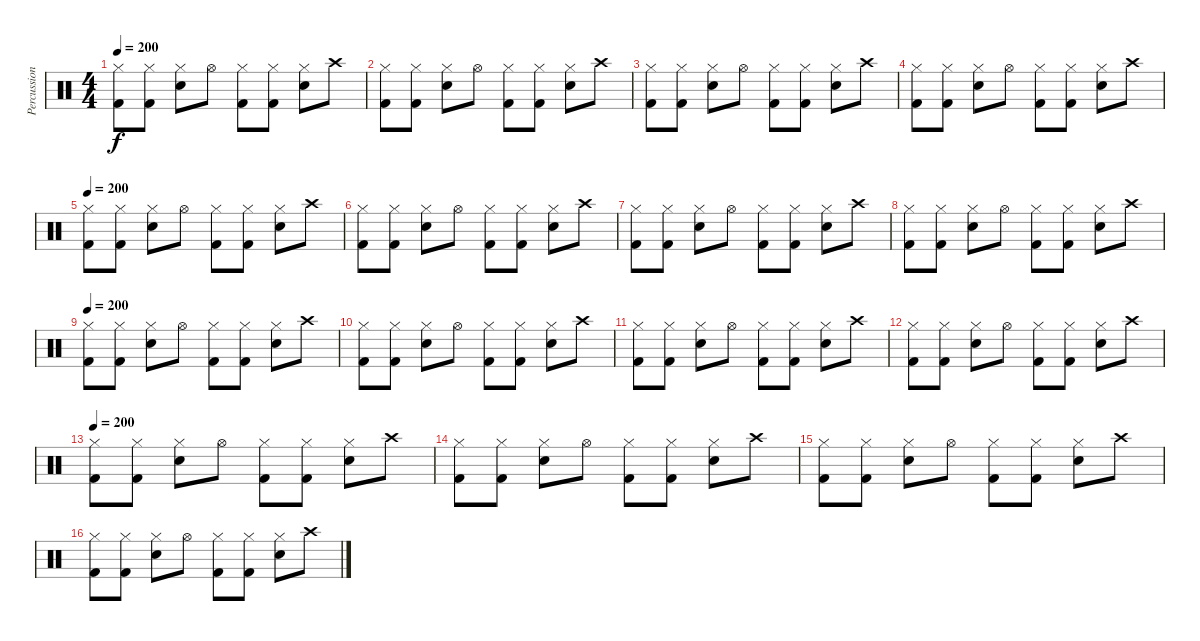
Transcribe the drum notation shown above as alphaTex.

\track ("Percussion" "Percussion") {instrument percussion}
\staff {score}
\articulation defaults
\ts (4 4)
\tempo 200
\clef neutral
\ks c
("Hi-Hat (closed)" "Kick (hit) 2").8{dy f} ("Hi-Hat (closed)" "Kick (hit) 2").8 ("Hi-Hat (closed)" "Snare (hit) 2").8 "Hi-Hat (open)".8 ("Hi-Hat (closed)" "Kick (hit) 2").8 ("Hi-Hat (closed)" "Kick (hit) 2").8 ("Hi-Hat (closed)" "Snare (hit) 2").8 "Crash high (hit)".8 |
("Hi-Hat (closed)" "Kick (hit) 2").8 ("Hi-Hat (closed)" "Kick (hit) 2").8 ("Hi-Hat (closed)" "Snare (hit) 2").8 "Hi-Hat (open)".8 ("Hi-Hat (closed)" "Kick (hit) 2").8 ("Hi-Hat (closed)" "Kick (hit) 2").8 ("Hi-Hat (closed)" "Snare (hit) 2").8 "Crash high (hit)".8 |
("Hi-Hat (closed)" "Kick (hit) 2").8 ("Hi-Hat (closed)" "Kick (hit) 2").8 ("Hi-Hat (closed)" "Snare (hit) 2").8 "Hi-Hat (open)".8 ("Hi-Hat (closed)" "Kick (hit) 2").8 ("Hi-Hat (closed)" "Kick (hit) 2").8 ("Hi-Hat (closed)" "Snare (hit) 2").8 "Crash high (hit)".8 |
("Hi-Hat (closed)" "Kick (hit) 2").8 ("Hi-Hat (closed)" "Kick (hit) 2").8 ("Hi-Hat (closed)" "Snare (hit) 2").8 "Hi-Hat (open)".8 ("Hi-Hat (closed)" "Kick (hit) 2").8 ("Hi-Hat (closed)" "Kick (hit) 2").8 ("Hi-Hat (closed)" "Snare (hit) 2").8 "Crash high (hit)".8 |
\tempo 200
("Hi-Hat (closed)" "Kick (hit) 2").8 ("Hi-Hat (closed)" "Kick (hit) 2").8 ("Hi-Hat (closed)" "Snare (hit) 2").8 "Hi-Hat (open)".8 ("Hi-Hat (closed)" "Kick (hit) 2").8 ("Hi-Hat (closed)" "Kick (hit) 2").8 ("Hi-Hat (closed)" "Snare (hit) 2").8 "Crash high (hit)".8 |
("Hi-Hat (closed)" "Kick (hit) 2").8 ("Hi-Hat (closed)" "Kick (hit) 2").8 ("Hi-Hat (closed)" "Snare (hit) 2").8 "Hi-Hat (open)".8 ("Hi-Hat (closed)" "Kick (hit) 2").8 ("Hi-Hat (closed)" "Kick (hit) 2").8 ("Hi-Hat (closed)" "Snare (hit) 2").8 "Crash high (hit)".8 |
("Hi-Hat (closed)" "Kick (hit) 2").8 ("Hi-Hat (closed)" "Kick (hit) 2").8 ("Hi-Hat (closed)" "Snare (hit) 2").8 "Hi-Hat (open)".8 ("Hi-Hat (closed)" "Kick (hit) 2").8 ("Hi-Hat (closed)" "Kick (hit) 2").8 ("Hi-Hat (closed)" "Snare (hit) 2").8 "Crash high (hit)".8 |
("Hi-Hat (closed)" "Kick (hit) 2").8 ("Hi-Hat (closed)" "Kick (hit) 2").8 ("Hi-Hat (closed)" "Snare (hit) 2").8 "Hi-Hat (open)".8 ("Hi-Hat (closed)" "Kick (hit) 2").8 ("Hi-Hat (closed)" "Kick (hit) 2").8 ("Hi-Hat (closed)" "Snare (hit) 2").8 "Crash high (hit)".8 |
\tempo 200
("Hi-Hat (closed)" "Kick (hit) 2").8 ("Hi-Hat (closed)" "Kick (hit) 2").8 ("Hi-Hat (closed)" "Snare (hit) 2").8 "Hi-Hat (open)".8 ("Hi-Hat (closed)" "Kick (hit) 2").8 ("Hi-Hat (closed)" "Kick (hit) 2").8 ("Hi-Hat (closed)" "Snare (hit) 2").8 "Crash high (hit)".8 |
("Hi-Hat (closed)" "Kick (hit) 2").8 ("Hi-Hat (closed)" "Kick (hit) 2").8 ("Hi-Hat (closed)" "Snare (hit) 2").8 "Hi-Hat (open)".8 ("Hi-Hat (closed)" "Kick (hit) 2").8 ("Hi-Hat (closed)" "Kick (hit) 2").8 ("Hi-Hat (closed)" "Snare (hit) 2").8 "Crash high (hit)".8 |
("Hi-Hat (closed)" "Kick (hit) 2").8 ("Hi-Hat (closed)" "Kick (hit) 2").8 ("Hi-Hat (closed)" "Snare (hit) 2").8 "Hi-Hat (open)".8 ("Hi-Hat (closed)" "Kick (hit) 2").8 ("Hi-Hat (closed)" "Kick (hit) 2").8 ("Hi-Hat (closed)" "Snare (hit) 2").8 "Crash high (hit)".8 |
("Hi-Hat (closed)" "Kick (hit) 2").8 ("Hi-Hat (closed)" "Kick (hit) 2").8 ("Hi-Hat (closed)" "Snare (hit) 2").8 "Hi-Hat (open)".8 ("Hi-Hat (closed)" "Kick (hit) 2").8 ("Hi-Hat (closed)" "Kick (hit) 2").8 ("Hi-Hat (closed)" "Snare (hit) 2").8 "Crash high (hit)".8 |
\tempo 200
("Hi-Hat (closed)" "Kick (hit) 2").8 ("Hi-Hat (closed)" "Kick (hit) 2").8 ("Hi-Hat (closed)" "Snare (hit) 2").8 "Hi-Hat (open)".8 ("Hi-Hat (closed)" "Kick (hit) 2").8 ("Hi-Hat (closed)" "Kick (hit) 2").8 ("Hi-Hat (closed)" "Snare (hit) 2").8 "Crash high (hit)".8 |
("Hi-Hat (closed)" "Kick (hit) 2").8 ("Hi-Hat (closed)" "Kick (hit) 2").8 ("Hi-Hat (closed)" "Snare (hit) 2").8 "Hi-Hat (open)".8 ("Hi-Hat (closed)" "Kick (hit) 2").8 ("Hi-Hat (closed)" "Kick (hit) 2").8 ("Hi-Hat (closed)" "Snare (hit) 2").8 "Crash high (hit)".8 |
("Hi-Hat (closed)" "Kick (hit) 2").8 ("Hi-Hat (closed)" "Kick (hit) 2").8 ("Hi-Hat (closed)" "Snare (hit) 2").8 "Hi-Hat (open)".8 ("Hi-Hat (closed)" "Kick (hit) 2").8 ("Hi-Hat (closed)" "Kick (hit) 2").8 ("Hi-Hat (closed)" "Snare (hit) 2").8 "Crash high (hit)".8 |
("Hi-Hat (closed)" "Kick (hit) 2").8 ("Hi-Hat (closed)" "Kick (hit) 2").8 ("Hi-Hat (closed)" "Snare (hit) 2").8 "Hi-Hat (open)".8 ("Hi-Hat (closed)" "Kick (hit) 2").8 ("Hi-Hat (closed)" "Kick (hit) 2").8 ("Hi-Hat (closed)" "Snare (hit) 2").8 "Crash high (hit)".8
